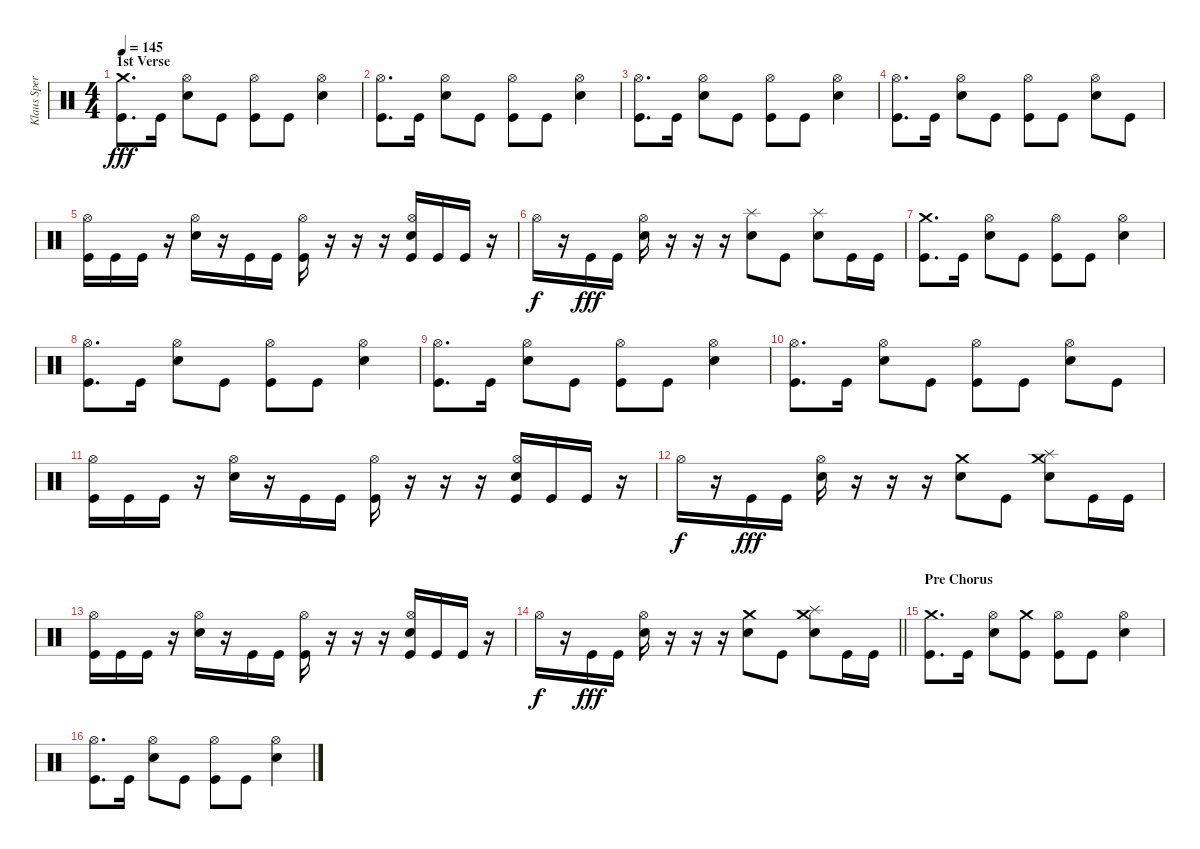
\track ("Klaus Sperling" "Klaus Sper") {instrument percussion}
\staff {score}
\articulation defaults
\ts (4 4)
\section ("" "1st Verse")
\tempo 145
\clef neutral
\ks c
("Crash medium (hit)" "Kick (hit)").8{d dy fff} "Kick (hit)".16 ("Hi-Hat (open)" "Electric Snare (hit)").8 "Kick (hit)".8 ("Hi-Hat (open)" "Kick (hit)").8 "Kick (hit)".8 ("Hi-Hat (open)" "Electric Snare (hit)").4 |
("Hi-Hat (open)" "Kick (hit)").8{d} "Kick (hit)".16 ("Hi-Hat (open)" "Electric Snare (hit)").8 "Kick (hit)".8 ("Hi-Hat (open)" "Kick (hit)").8 "Kick (hit)".8 ("Hi-Hat (open)" "Electric Snare (hit)").4 |
("Hi-Hat (open)" "Kick (hit)").8{d} "Kick (hit)".16 ("Hi-Hat (open)" "Electric Snare (hit)").8 "Kick (hit)".8 ("Hi-Hat (open)" "Kick (hit)").8 "Kick (hit)".8 ("Hi-Hat (open)" "Electric Snare (hit)").4 |
("Hi-Hat (open)" "Kick (hit)").8{d} "Kick (hit)".16 ("Hi-Hat (open)" "Electric Snare (hit)").8 "Kick (hit)".8 ("Hi-Hat (open)" "Kick (hit)").8 "Kick (hit)".8 ("Hi-Hat (open)" "Electric Snare (hit)").8 "Kick (hit)".8 |
("Hi-Hat (open)" "Kick (hit)").16 "Kick (hit)".16 "Kick (hit)".16 r.16 ("Hi-Hat (open)" "Electric Snare (hit)").16 r.16 "Kick (hit)".16 "Kick (hit)".16 ("Hi-Hat (open)" "Kick (hit)").16 r.16 r.16 r.16 ("Hi-Hat (open)" "Electric Snare (hit)" "Kick (hit)").16 "Kick (hit)".16 "Kick (hit)".16 r.16 |
"Hi-Hat (open)".16{dy f} r.16 "Kick (hit)".16{dy fff} "Kick (hit)".16 ("Hi-Hat (open)" "Electric Snare (hit)").16 r.16 r.16 r.16 ("Splash (hit)" "Electric Snare (hit)").8 "Kick (hit)".8 ("Splash (hit)" "Electric Snare (hit)").8 "Kick (hit)".16 "Kick (hit)".16 |
("Crash medium (hit)" "Kick (hit)").8{d} "Kick (hit)".16 ("Hi-Hat (open)" "Electric Snare (hit)").8 "Kick (hit)".8 ("Hi-Hat (open)" "Kick (hit)").8 "Kick (hit)".8 ("Hi-Hat (open)" "Electric Snare (hit)").4 |
("Hi-Hat (open)" "Kick (hit)").8{d} "Kick (hit)".16 ("Hi-Hat (open)" "Electric Snare (hit)").8 "Kick (hit)".8 ("Hi-Hat (open)" "Kick (hit)").8 "Kick (hit)".8 ("Hi-Hat (open)" "Electric Snare (hit)").4 |
("Hi-Hat (open)" "Kick (hit)").8{d} "Kick (hit)".16 ("Hi-Hat (open)" "Electric Snare (hit)").8 "Kick (hit)".8 ("Hi-Hat (open)" "Kick (hit)").8 "Kick (hit)".8 ("Hi-Hat (open)" "Electric Snare (hit)").4 |
("Hi-Hat (open)" "Kick (hit)").8{d} "Kick (hit)".16 ("Hi-Hat (open)" "Electric Snare (hit)").8 "Kick (hit)".8 ("Hi-Hat (open)" "Kick (hit)").8 "Kick (hit)".8 ("Hi-Hat (open)" "Electric Snare (hit)").8 "Kick (hit)".8 |
("Hi-Hat (open)" "Kick (hit)").16 "Kick (hit)".16 "Kick (hit)".16 r.16 ("Hi-Hat (open)" "Electric Snare (hit)").16 r.16 "Kick (hit)".16 "Kick (hit)".16 ("Hi-Hat (open)" "Kick (hit)").16 r.16 r.16 r.16 ("Hi-Hat (open)" "Electric Snare (hit)" "Kick (hit)").16 "Kick (hit)".16 "Kick (hit)".16 r.16 |
"Hi-Hat (open)".16{dy f} r.16 "Kick (hit)".16{dy fff} "Kick (hit)".16 ("Hi-Hat (open)" "Electric Snare (hit)").16 r.16 r.16 r.16 ("Crash medium (hit)" "Electric Snare (hit)").8 "Kick (hit)".8 ("Crash medium (hit)" "Splash (hit)" "Electric Snare (hit)").8 "Kick (hit)".16 "Kick (hit)".16 |
("Hi-Hat (open)" "Kick (hit)").16 "Kick (hit)".16 "Kick (hit)".16 r.16 ("Hi-Hat (open)" "Electric Snare (hit)").16 r.16 "Kick (hit)".16 "Kick (hit)".16 ("Hi-Hat (open)" "Kick (hit)").16 r.16 r.16 r.16 ("Hi-Hat (open)" "Electric Snare (hit)" "Kick (hit)").16 "Kick (hit)".16 "Kick (hit)".16 r.16 |
\barLineRight lightlight "Hi-Hat (open)".16{dy f}
r.16 "Kick (hit)".16{dy fff} "Kick (hit)".16 ("Hi-Hat (open)" "Electric Snare (hit)").16 r.16 r.16 r.16 ("Crash medium (hit)" "Electric Snare (hit)").8 "Kick (hit)".8 ("Crash medium (hit)" "Splash (hit)" "Electric Snare (hit)").8 "Kick (hit)".16 "Kick (hit)".16 |
\section ("" "Pre Chorus")
("Crash medium (hit)" "Kick (hit)").8{d} "Kick (hit)".16 ("Hi-Hat (open)" "Electric Snare (hit)").8 ("Crash medium (hit)" "Kick (hit)").8 ("Hi-Hat (open)" "Kick (hit)").8 "Kick (hit)".8 ("Hi-Hat (open)" "Electric Snare (hit)").4 |
("Hi-Hat (open)" "Kick (hit)").8{d} "Kick (hit)".16 ("Hi-Hat (open)" "Electric Snare (hit)").8 "Kick (hit)".8 ("Hi-Hat (open)" "Kick (hit)").8 "Kick (hit)".8 ("Hi-Hat (open)" "Electric Snare (hit)").4
